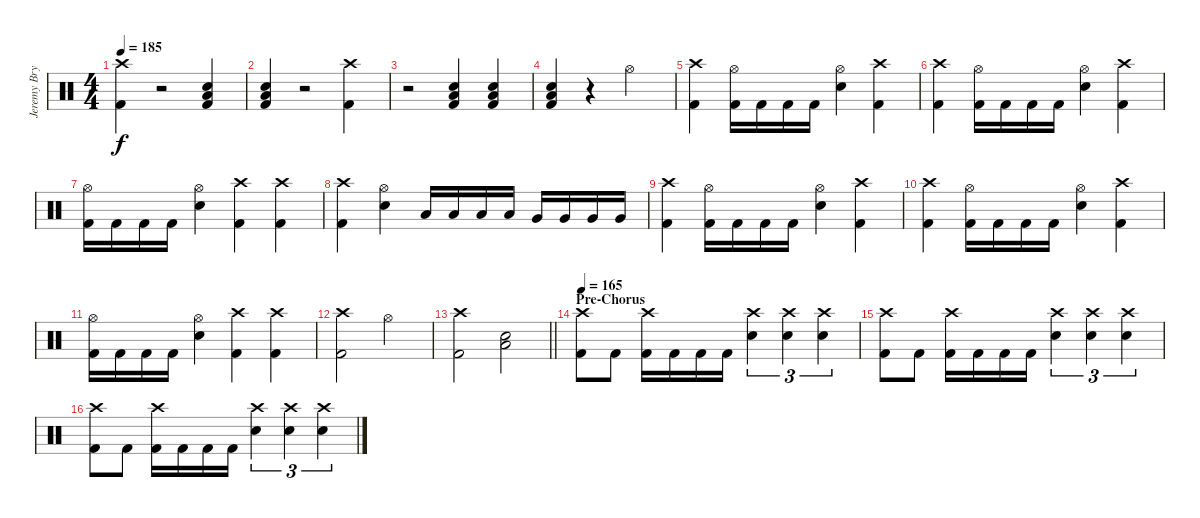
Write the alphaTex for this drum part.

\track ("Jeremy Bryan - Drums" "Jeremy Bry") {instrument percussion}
\staff {score}
\articulation defaults
\ts (4 4)
\tempo 185
\clef neutral
\ks c
("Crash high (hit)" "Kick (hit) 2").4{dy f} r.2 ("Low Floor Tom (hit)" "Electric Snare (hit)" "Kick (hit) 2").4 |
("Low Floor Tom (hit)" "Electric Snare (hit)" "Kick (hit) 2").4 r.2 ("Crash high (hit)" "Kick (hit) 2").4 |
r.2 ("Low Floor Tom (hit)" "Electric Snare (hit)" "Kick (hit) 2").4 ("Low Floor Tom (hit)" "Electric Snare (hit)" "Kick (hit) 2").4 |
("Low Floor Tom (hit)" "Electric Snare (hit)" "Kick (hit) 2").4 r.4 "Hi-Hat (open)".2 |
("Crash high (hit)" "Kick (hit) 2").4 ("Hi-Hat (open)" "Kick (hit) 2").16 "Kick (hit) 2".16 "Kick (hit) 2".16 "Kick (hit) 2".16 ("Hi-Hat (open)" "Electric Snare (hit)").4 ("Crash high (hit)" "Kick (hit) 2").4 |
("Crash high (hit)" "Kick (hit) 2").4 ("Hi-Hat (open)" "Kick (hit) 2").16 "Kick (hit) 2".16 "Kick (hit) 2".16 "Kick (hit) 2".16 ("Hi-Hat (open)" "Electric Snare (hit)").4 ("Crash high (hit)" "Kick (hit) 2").4 |
("Hi-Hat (open)" "Kick (hit) 2").16 "Kick (hit) 2".16 "Kick (hit) 2".16 "Kick (hit) 2".16 ("Hi-Hat (open)" "Electric Snare (hit)").4 ("Crash high (hit)" "Kick (hit) 2").4 ("Crash high (hit)" "Kick (hit) 2").4 |
("Crash high (hit)" "Kick (hit) 2").4 ("Hi-Hat (open)" "Electric Snare (hit)").4 "Low Tom (hit)".16 "Low Tom (hit)".16 "Low Tom (hit)".16 "Low Tom (hit)".16 "Very Low Tom (hit)".16 "Very Low Tom (hit)".16 "Very Low Tom (hit)".16 "Very Low Tom (hit)".16 |
("Crash high (hit)" "Kick (hit) 2").4 ("Hi-Hat (open)" "Kick (hit) 2").16 "Kick (hit) 2".16 "Kick (hit) 2".16 "Kick (hit) 2".16 ("Hi-Hat (open)" "Electric Snare (hit)").4 ("Crash high (hit)" "Kick (hit) 2").4 |
("Crash high (hit)" "Kick (hit) 2").4 ("Hi-Hat (open)" "Kick (hit) 2").16 "Kick (hit) 2".16 "Kick (hit) 2".16 "Kick (hit) 2".16 ("Hi-Hat (open)" "Electric Snare (hit)").4 ("Crash high (hit)" "Kick (hit) 2").4 |
("Hi-Hat (open)" "Kick (hit) 2").16 "Kick (hit) 2".16 "Kick (hit) 2".16 "Kick (hit) 2".16 ("Hi-Hat (open)" "Electric Snare (hit)").4 ("Crash high (hit)" "Kick (hit) 2").4 ("Crash high (hit)" "Kick (hit) 2").4 |
("Crash high (hit)" "Kick (hit) 2").2 "Hi-Hat (open)".2 |
\barLineRight lightlight
("Crash high (hit)" "Kick (hit) 2").2 ("Electric Snare (hit)" "Low Floor Tom (hit)").2 |
\section ("" "Pre-Chorus")
\tempo 165
("Crash high (hit)" "Kick (hit) 2").8 "Kick (hit) 2".8 ("Crash high (hit)" "Kick (hit) 2").16 "Kick (hit) 2".16 "Kick (hit) 2".16 "Kick (hit) 2".16 ("Crash high (hit)" "Electric Snare (hit)").4{tu (3 2)} ("Crash high (hit)" "Electric Snare (hit)").4{tu (3 2)} ("Crash high (hit)" "Electric Snare (hit)").4{tu (3 2)} |
("Crash high (hit)" "Kick (hit) 2").8 "Kick (hit) 2".8 ("Crash high (hit)" "Kick (hit) 2").16 "Kick (hit) 2".16 "Kick (hit) 2".16 "Kick (hit) 2".16 ("Crash high (hit)" "Electric Snare (hit)").4{tu (3 2)} ("Crash high (hit)" "Electric Snare (hit)").4{tu (3 2)} ("Crash high (hit)" "Electric Snare (hit)").4{tu (3 2)} |
("Crash high (hit)" "Kick (hit) 2").8 "Kick (hit) 2".8 ("Crash high (hit)" "Kick (hit) 2").16 "Kick (hit) 2".16 "Kick (hit) 2".16 "Kick (hit) 2".16 ("Crash high (hit)" "Electric Snare (hit)").4{tu (3 2)} ("Crash high (hit)" "Electric Snare (hit)").4{tu (3 2)} ("Crash high (hit)" "Electric Snare (hit)").4{tu (3 2)}
